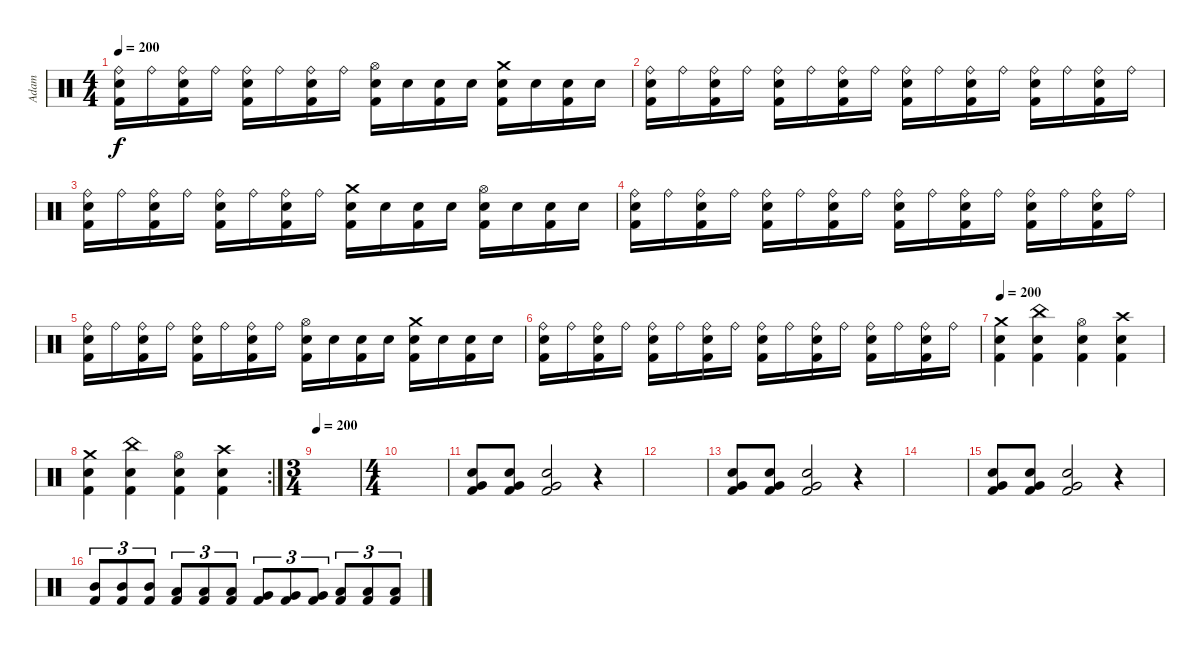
\track ("Adam" "Adam") {instrument percussion}
\staff {score}
\articulation defaults
\ts (4 4)
\tempo 200
\clef neutral
\ks c
("Ride (bell)" "Electric Snare (hit)" "Kick (hit) 2").16{dy f} "Ride (bell)".16 ("Ride (bell)" "Electric Snare (hit)" "Kick (hit) 2").16 "Ride (bell)".16 ("Ride (bell)" "Electric Snare (hit)" "Kick (hit) 2").16 "Ride (bell)".16 ("Ride (bell)" "Electric Snare (hit)" "Kick (hit) 2").16 "Ride (bell)".16 ("Hi-Hat (open)" "Electric Snare (hit)" "Kick (hit) 2").16 "Electric Snare (hit)".16 ("Electric Snare (hit)" "Kick (hit) 2").16 "Electric Snare (hit)".16 ("Crash medium (hit)" "Electric Snare (hit)" "Kick (hit) 2").16 "Electric Snare (hit)".16 ("Electric Snare (hit)" "Kick (hit) 2").16 "Electric Snare (hit)".16 |
("Ride (bell)" "Electric Snare (hit)" "Kick (hit) 2").16 "Ride (bell)".16 ("Ride (bell)" "Electric Snare (hit)" "Kick (hit) 2").16 "Ride (bell)".16 ("Ride (bell)" "Electric Snare (hit)" "Kick (hit) 2").16 "Ride (bell)".16 ("Ride (bell)" "Electric Snare (hit)" "Kick (hit) 2").16 "Ride (bell)".16 ("Ride (bell)" "Electric Snare (hit)" "Kick (hit) 2").16 "Ride (bell)".16 ("Ride (bell)" "Electric Snare (hit)" "Kick (hit) 2").16 "Ride (bell)".16 ("Ride (bell)" "Electric Snare (hit)" "Kick (hit) 2").16 "Ride (bell)".16 ("Ride (bell)" "Electric Snare (hit)" "Kick (hit) 2").16 "Ride (bell)".16 |
("Ride (bell)" "Electric Snare (hit)" "Kick (hit) 2").16 "Ride (bell)".16 ("Ride (bell)" "Electric Snare (hit)" "Kick (hit) 2").16 "Ride (bell)".16 ("Ride (bell)" "Electric Snare (hit)" "Kick (hit) 2").16 "Ride (bell)".16 ("Ride (bell)" "Electric Snare (hit)" "Kick (hit) 2").16 "Ride (bell)".16 ("Crash medium (hit)" "Electric Snare (hit)" "Kick (hit) 2").16 "Electric Snare (hit)".16 ("Electric Snare (hit)" "Kick (hit) 2").16 "Electric Snare (hit)".16 ("Hi-Hat (open)" "Electric Snare (hit)" "Kick (hit) 2").16 "Electric Snare (hit)".16 ("Electric Snare (hit)" "Kick (hit) 2").16 "Electric Snare (hit)".16 |
("Ride (bell)" "Electric Snare (hit)" "Kick (hit) 2").16 "Ride (bell)".16 ("Ride (bell)" "Electric Snare (hit)" "Kick (hit) 2").16 "Ride (bell)".16 ("Ride (bell)" "Electric Snare (hit)" "Kick (hit) 2").16 "Ride (bell)".16 ("Ride (bell)" "Electric Snare (hit)" "Kick (hit) 2").16 "Ride (bell)".16 ("Ride (bell)" "Electric Snare (hit)" "Kick (hit) 2").16 "Ride (bell)".16 ("Ride (bell)" "Electric Snare (hit)" "Kick (hit) 2").16 "Ride (bell)".16 ("Ride (bell)" "Electric Snare (hit)" "Kick (hit) 2").16 "Ride (bell)".16 ("Ride (bell)" "Electric Snare (hit)" "Kick (hit) 2").16 "Ride (bell)".16 |
("Ride (bell)" "Electric Snare (hit)" "Kick (hit) 2").16 "Ride (bell)".16 ("Ride (bell)" "Electric Snare (hit)" "Kick (hit) 2").16 "Ride (bell)".16 ("Ride (bell)" "Electric Snare (hit)" "Kick (hit) 2").16 "Ride (bell)".16 ("Ride (bell)" "Electric Snare (hit)" "Kick (hit) 2").16 "Ride (bell)".16 ("Hi-Hat (open)" "Electric Snare (hit)" "Kick (hit) 2").16 "Electric Snare (hit)".16 ("Electric Snare (hit)" "Kick (hit) 2").16 "Electric Snare (hit)".16 ("Crash medium (hit)" "Electric Snare (hit)" "Kick (hit) 2").16 "Electric Snare (hit)".16 ("Electric Snare (hit)" "Kick (hit) 2").16 "Electric Snare (hit)".16 |
("Ride (bell)" "Electric Snare (hit)" "Kick (hit) 2").16 "Ride (bell)".16 ("Ride (bell)" "Electric Snare (hit)" "Kick (hit) 2").16 "Ride (bell)".16 ("Ride (bell)" "Electric Snare (hit)" "Kick (hit) 2").16 "Ride (bell)".16 ("Ride (bell)" "Electric Snare (hit)" "Kick (hit) 2").16 "Ride (bell)".16 ("Ride (bell)" "Electric Snare (hit)" "Kick (hit) 2").16 "Ride (bell)".16 ("Ride (bell)" "Electric Snare (hit)" "Kick (hit) 2").16 "Ride (bell)".16 ("Ride (bell)" "Electric Snare (hit)" "Kick (hit) 2").16 "Ride (bell)".16 ("Ride (bell)" "Electric Snare (hit)" "Kick (hit) 2").16 "Ride (bell)".16 |
\tempo 200
("Crash medium (hit)" "Electric Snare (hit)" "Kick (hit) 2").4 ("China (hit)" "Electric Snare (hit)" "Kick (hit) 2").4 ("Hi-Hat (open)" "Electric Snare (hit)" "Kick (hit) 2").4 ("Crash high (hit)" "Electric Snare (hit)" "Kick (hit) 2").4 |
\rc 2
("Crash medium (hit)" "Electric Snare (hit)" "Kick (hit) 2").4 ("China (hit)" "Electric Snare (hit)" "Kick (hit) 2").4 ("Hi-Hat (open)" "Electric Snare (hit)" "Kick (hit) 2").4 ("Crash high (hit)" "Electric Snare (hit)" "Kick (hit) 2").4 |
\ts (3 4)
\tempo 200
|
\ts (4 4)
|
("Very Low Tom (hit)" "Snare (hit) 2" "Kick (hit) 2").8 ("Very Low Tom (hit)" "Snare (hit) 2" "Kick (hit) 2").8 ("Very Low Tom (hit)" "Snare (hit) 2" "Kick (hit) 2").2 r.4 |
|
("Very Low Tom (hit)" "Snare (hit) 2" "Kick (hit) 2").8 ("Very Low Tom (hit)" "Snare (hit) 2" "Kick (hit) 2").8 ("Very Low Tom (hit)" "Snare (hit) 2" "Kick (hit) 2").2 r.4 |
|
("Very Low Tom (hit)" "Snare (hit) 2" "Kick (hit) 2").8 ("Very Low Tom (hit)" "Snare (hit) 2" "Kick (hit) 2").8 ("Very Low Tom (hit)" "Snare (hit) 2" "Kick (hit) 2").2 r.4 |
("Mid Tom (hit)" "Kick (hit) 2").8{tu (3 2)} ("Mid Tom (hit)" "Kick (hit) 2").8{tu (3 2)} ("Mid Tom (hit)" "Kick (hit) 2").8{tu (3 2)} ("Low Tom (hit)" "Kick (hit) 2").8{tu (3 2)} ("Low Tom (hit)" "Kick (hit) 2").8{tu (3 2)} ("Low Tom (hit)" "Kick (hit) 2").8{tu (3 2)} ("Very Low Tom (hit)" "Kick (hit) 2").8{tu (3 2)} ("Very Low Tom (hit)" "Kick (hit) 2").8{tu (3 2)} ("Very Low Tom (hit)" "Kick (hit) 2").8{tu (3 2)} ("Low Floor Tom (hit)" "Kick (hit) 2").8{tu (3 2)} ("Low Floor Tom (hit)" "Kick (hit) 2").8{tu (3 2)} ("Low Floor Tom (hit)" "Kick (hit) 2").8{tu (3 2)}
